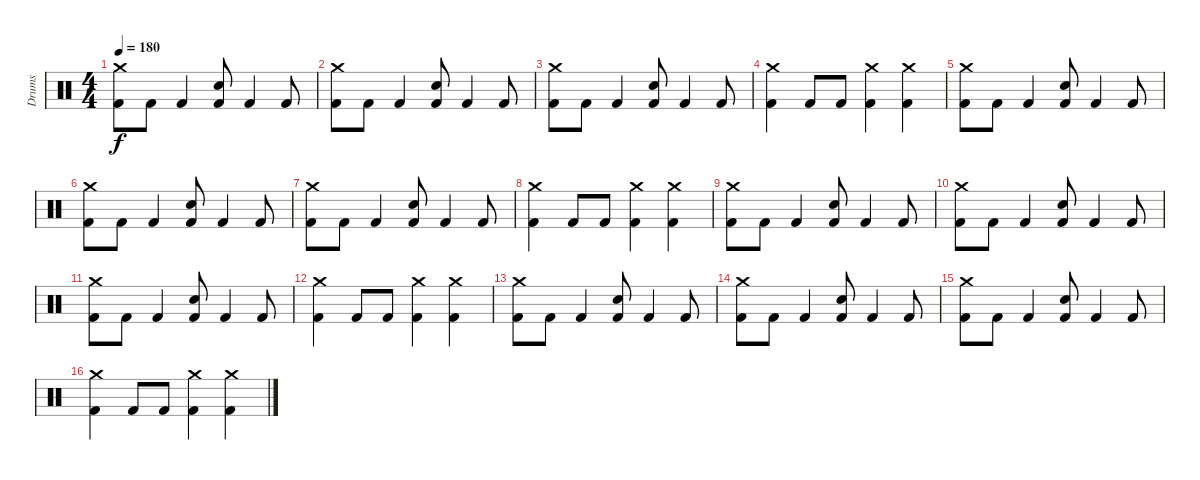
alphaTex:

\track ("Drums" "Drums") {instrument percussion}
\staff {score}
\articulation defaults
\ts (4 4)
\tempo 180
\clef neutral
\ks c
("Crash medium (hit)" "Kick (hit) 2").8{dy f} "Kick (hit) 2".8 "Kick (hit) 2".4 ("Snare (hit) 2" "Kick (hit) 2").8 "Kick (hit) 2".4 "Kick (hit) 2".8 |
("Crash medium (hit)" "Kick (hit) 2").8 "Kick (hit) 2".8 "Kick (hit) 2".4 ("Snare (hit) 2" "Kick (hit) 2").8 "Kick (hit) 2".4 "Kick (hit) 2".8 |
("Crash medium (hit)" "Kick (hit) 2").8 "Kick (hit) 2".8 "Kick (hit) 2".4 ("Snare (hit) 2" "Kick (hit) 2").8 "Kick (hit) 2".4 "Kick (hit) 2".8 |
("Crash medium (hit)" "Kick (hit) 2").4 "Kick (hit) 2".8 "Kick (hit) 2".8 ("Crash medium (hit)" "Kick (hit) 2").4 ("Crash medium (hit)" "Kick (hit) 2").4 |
("Crash medium (hit)" "Kick (hit) 2").8 "Kick (hit) 2".8 "Kick (hit) 2".4 ("Snare (hit) 2" "Kick (hit) 2").8 "Kick (hit) 2".4 "Kick (hit) 2".8 |
("Crash medium (hit)" "Kick (hit) 2").8 "Kick (hit) 2".8 "Kick (hit) 2".4 ("Snare (hit) 2" "Kick (hit) 2").8 "Kick (hit) 2".4 "Kick (hit) 2".8 |
("Crash medium (hit)" "Kick (hit) 2").8 "Kick (hit) 2".8 "Kick (hit) 2".4 ("Snare (hit) 2" "Kick (hit) 2").8 "Kick (hit) 2".4 "Kick (hit) 2".8 |
("Crash medium (hit)" "Kick (hit) 2").4 "Kick (hit) 2".8 "Kick (hit) 2".8 ("Crash medium (hit)" "Kick (hit) 2").4 ("Crash medium (hit)" "Kick (hit) 2").4 |
("Crash medium (hit)" "Kick (hit) 2").8 "Kick (hit) 2".8 "Kick (hit) 2".4 ("Snare (hit) 2" "Kick (hit) 2").8 "Kick (hit) 2".4 "Kick (hit) 2".8 |
("Crash medium (hit)" "Kick (hit) 2").8 "Kick (hit) 2".8 "Kick (hit) 2".4 ("Snare (hit) 2" "Kick (hit) 2").8 "Kick (hit) 2".4 "Kick (hit) 2".8 |
("Crash medium (hit)" "Kick (hit) 2").8 "Kick (hit) 2".8 "Kick (hit) 2".4 ("Snare (hit) 2" "Kick (hit) 2").8 "Kick (hit) 2".4 "Kick (hit) 2".8 |
("Crash medium (hit)" "Kick (hit) 2").4 "Kick (hit) 2".8 "Kick (hit) 2".8 ("Crash medium (hit)" "Kick (hit) 2").4 ("Crash medium (hit)" "Kick (hit) 2").4 |
("Crash medium (hit)" "Kick (hit) 2").8 "Kick (hit) 2".8 "Kick (hit) 2".4 ("Snare (hit) 2" "Kick (hit) 2").8 "Kick (hit) 2".4 "Kick (hit) 2".8 |
("Crash medium (hit)" "Kick (hit) 2").8 "Kick (hit) 2".8 "Kick (hit) 2".4 ("Snare (hit) 2" "Kick (hit) 2").8 "Kick (hit) 2".4 "Kick (hit) 2".8 |
("Crash medium (hit)" "Kick (hit) 2").8 "Kick (hit) 2".8 "Kick (hit) 2".4 ("Snare (hit) 2" "Kick (hit) 2").8 "Kick (hit) 2".4 "Kick (hit) 2".8 |
("Crash medium (hit)" "Kick (hit) 2").4 "Kick (hit) 2".8 "Kick (hit) 2".8 ("Crash medium (hit)" "Kick (hit) 2").4 ("Crash medium (hit)" "Kick (hit) 2").4
